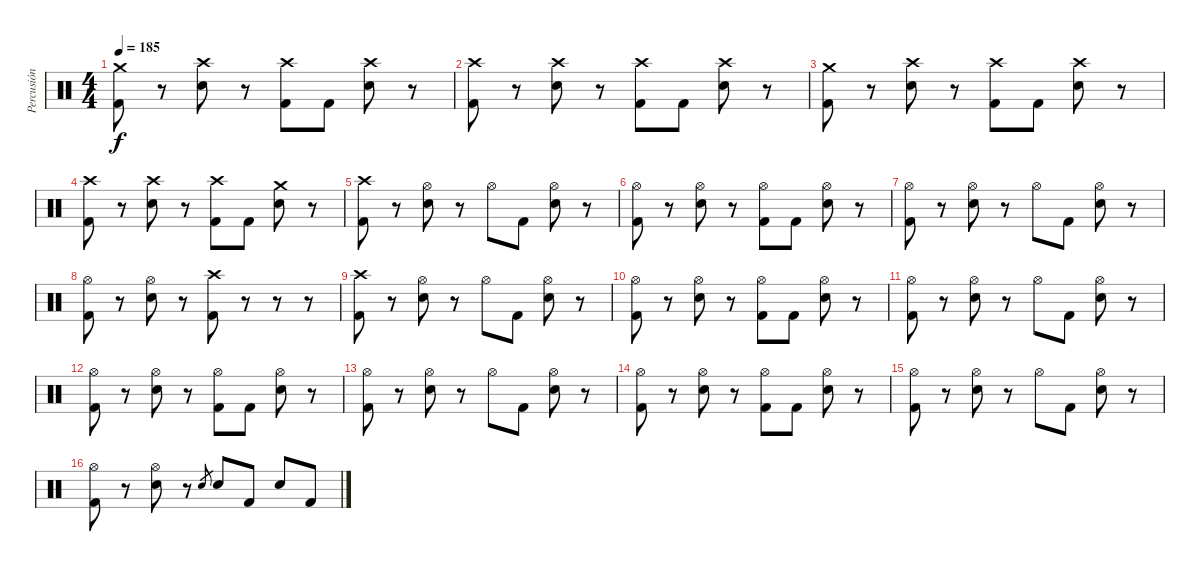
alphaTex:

\track ("Percusión" "Percusión") {instrument percussion}
\staff {score}
\articulation defaults
\ts (4 4)
\tempo 185
\clef neutral
\ks c
("Crash medium (hit)" "Kick (hit) 2").8{dy f} r.8 ("Crash high (hit)" "Electric Snare (hit)").8 r.8 ("Crash high (hit)" "Kick (hit) 2").8 "Kick (hit) 2".8 ("Crash high (hit)" "Electric Snare (hit)").8 r.8 |
("Crash high (hit)" "Kick (hit) 2").8 r.8 ("Crash high (hit)" "Electric Snare (hit)").8 r.8 ("Crash high (hit)" "Kick (hit) 2").8 "Kick (hit) 2".8 ("Crash high (hit)" "Electric Snare (hit)").8 r.8 |
("Crash medium (hit)" "Kick (hit) 2").8 r.8 ("Crash high (hit)" "Electric Snare (hit)").8 r.8 ("Crash high (hit)" "Kick (hit) 2").8 "Kick (hit) 2".8 ("Crash high (hit)" "Electric Snare (hit)").8 r.8 |
("Crash high (hit)" "Kick (hit) 2").8 r.8 ("Crash high (hit)" "Electric Snare (hit)").8 r.8 ("Crash high (hit)" "Kick (hit) 2").8 "Kick (hit) 2".8 ("Crash medium (hit)" "Electric Snare (hit)").8 r.8 |
("Crash high (hit)" "Kick (hit) 2").8 r.8 ("Hi-Hat (open)" "Electric Snare (hit)").8 r.8 "Hi-Hat (open)".8 "Kick (hit) 2".8 ("Hi-Hat (open)" "Electric Snare (hit)").8 r.8 |
("Hi-Hat (open)" "Kick (hit) 2").8 r.8 ("Hi-Hat (open)" "Electric Snare (hit)").8 r.8 ("Hi-Hat (open)" "Kick (hit) 2").8 "Kick (hit) 2".8 ("Hi-Hat (open)" "Electric Snare (hit)").8 r.8 |
("Hi-Hat (open)" "Kick (hit) 2").8 r.8 ("Hi-Hat (open)" "Electric Snare (hit)").8 r.8 "Hi-Hat (open)".8 "Kick (hit) 2".8 ("Hi-Hat (open)" "Electric Snare (hit)").8 r.8 |
("Hi-Hat (open)" "Kick (hit) 2").8 r.8 ("Hi-Hat (open)" "Electric Snare (hit)").8 r.8 ("Crash high (hit)" "Kick (hit) 2").8 r.8 r.8 r.8 |
("Crash high (hit)" "Kick (hit) 2").8 r.8 ("Hi-Hat (open)" "Electric Snare (hit)").8 r.8 "Hi-Hat (open)".8 "Kick (hit) 2".8 ("Hi-Hat (open)" "Electric Snare (hit)").8 r.8 |
("Hi-Hat (open)" "Kick (hit) 2").8 r.8 ("Hi-Hat (open)" "Electric Snare (hit)").8 r.8 ("Hi-Hat (open)" "Kick (hit) 2").8 "Kick (hit) 2".8 ("Hi-Hat (open)" "Electric Snare (hit)").8 r.8 |
("Hi-Hat (open)" "Kick (hit) 2").8 r.8 ("Hi-Hat (open)" "Electric Snare (hit)").8 r.8 "Hi-Hat (open)".8 "Kick (hit) 2".8 ("Hi-Hat (open)" "Electric Snare (hit)").8 r.8 |
("Hi-Hat (open)" "Kick (hit) 2").8 r.8 ("Hi-Hat (open)" "Electric Snare (hit)").8 r.8 ("Hi-Hat (open)" "Kick (hit) 2").8 "Kick (hit) 2".8 ("Hi-Hat (open)" "Electric Snare (hit)").8 r.8 |
("Hi-Hat (open)" "Kick (hit) 2").8 r.8 ("Hi-Hat (open)" "Electric Snare (hit)").8 r.8 "Hi-Hat (open)".8 "Kick (hit) 2".8 ("Hi-Hat (open)" "Electric Snare (hit)").8 r.8 |
("Hi-Hat (open)" "Kick (hit) 2").8 r.8 ("Hi-Hat (open)" "Electric Snare (hit)").8 r.8 ("Hi-Hat (open)" "Kick (hit) 2").8 "Kick (hit) 2".8 ("Hi-Hat (open)" "Electric Snare (hit)").8 r.8 |
("Hi-Hat (open)" "Kick (hit) 2").8 r.8 ("Hi-Hat (open)" "Electric Snare (hit)").8 r.8 "Hi-Hat (open)".8 "Kick (hit) 2".8 ("Hi-Hat (open)" "Electric Snare (hit)").8 r.8 |
("Hi-Hat (open)" "Kick (hit) 2").8 r.8 ("Hi-Hat (open)" "Electric Snare (hit)").8 r.8 "Electric Snare (hit)".8{gr} "Electric Snare (hit)".8 "Kick (hit) 2".8 "Electric Snare (hit)".8 "Kick (hit) 2".8
